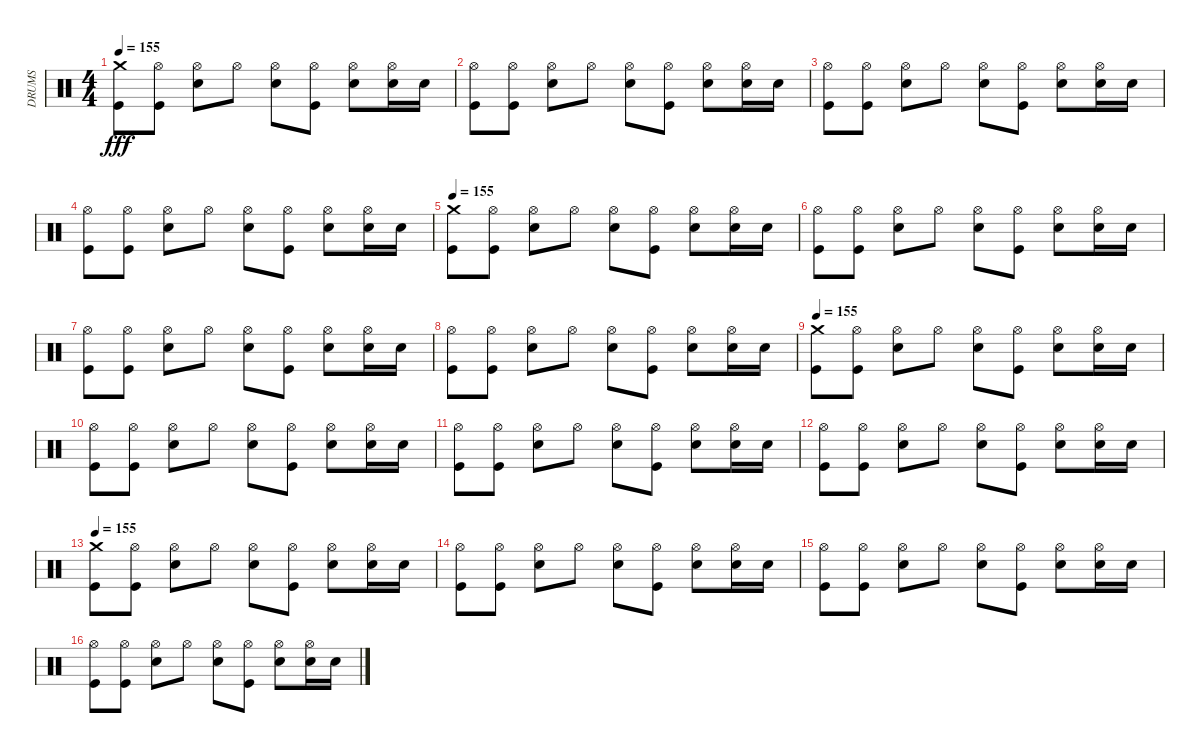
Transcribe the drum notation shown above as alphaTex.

\track ("DRUMS" "DRUMS") {instrument percussion}
\staff {score}
\articulation defaults
\ts (4 4)
\tempo 155
\clef neutral
\ks c
("Kick (hit)" "Crash medium (hit)").8{dy fff volume 14} ("Kick (hit)" "Hi-Hat (open)").8 ("Snare (hit) 2" "Hi-Hat (open)").8 "Hi-Hat (open)".8 ("Snare (hit) 2" "Hi-Hat (open)").8 ("Kick (hit)" "Hi-Hat (open)").8 ("Snare (hit) 2" "Hi-Hat (open)").8 ("Snare (hit) 2" "Hi-Hat (open)").16 "Snare (hit) 2".16 |
("Kick (hit)" "Hi-Hat (open)").8 ("Kick (hit)" "Hi-Hat (open)").8 ("Snare (hit) 2" "Hi-Hat (open)").8 "Hi-Hat (open)".8 ("Snare (hit) 2" "Hi-Hat (open)").8 ("Kick (hit)" "Hi-Hat (open)").8 ("Snare (hit) 2" "Hi-Hat (open)").8 ("Snare (hit) 2" "Hi-Hat (open)").16 "Snare (hit) 2".16 |
("Kick (hit)" "Hi-Hat (open)").8 ("Kick (hit)" "Hi-Hat (open)").8 ("Snare (hit) 2" "Hi-Hat (open)").8 "Hi-Hat (open)".8 ("Snare (hit) 2" "Hi-Hat (open)").8 ("Kick (hit)" "Hi-Hat (open)").8 ("Snare (hit) 2" "Hi-Hat (open)").8 ("Snare (hit) 2" "Hi-Hat (open)").16 "Snare (hit) 2".16 |
("Kick (hit)" "Hi-Hat (open)").8 ("Kick (hit)" "Hi-Hat (open)").8 ("Snare (hit) 2" "Hi-Hat (open)").8 "Hi-Hat (open)".8 ("Snare (hit) 2" "Hi-Hat (open)").8 ("Kick (hit)" "Hi-Hat (open)").8 ("Snare (hit) 2" "Hi-Hat (open)").8 ("Snare (hit) 2" "Hi-Hat (open)").16 "Snare (hit) 2".16 |
\tempo 155
("Kick (hit)" "Crash medium (hit)").8 ("Kick (hit)" "Hi-Hat (open)").8 ("Snare (hit) 2" "Hi-Hat (open)").8 "Hi-Hat (open)".8 ("Snare (hit) 2" "Hi-Hat (open)").8 ("Kick (hit)" "Hi-Hat (open)").8 ("Snare (hit) 2" "Hi-Hat (open)").8 ("Snare (hit) 2" "Hi-Hat (open)").16 "Snare (hit) 2".16 |
("Kick (hit)" "Hi-Hat (open)").8 ("Kick (hit)" "Hi-Hat (open)").8 ("Snare (hit) 2" "Hi-Hat (open)").8 "Hi-Hat (open)".8 ("Snare (hit) 2" "Hi-Hat (open)").8 ("Kick (hit)" "Hi-Hat (open)").8 ("Snare (hit) 2" "Hi-Hat (open)").8 ("Snare (hit) 2" "Hi-Hat (open)").16 "Snare (hit) 2".16 |
("Kick (hit)" "Hi-Hat (open)").8 ("Kick (hit)" "Hi-Hat (open)").8 ("Snare (hit) 2" "Hi-Hat (open)").8 "Hi-Hat (open)".8 ("Snare (hit) 2" "Hi-Hat (open)").8 ("Kick (hit)" "Hi-Hat (open)").8 ("Snare (hit) 2" "Hi-Hat (open)").8 ("Snare (hit) 2" "Hi-Hat (open)").16 "Snare (hit) 2".16 |
("Kick (hit)" "Hi-Hat (open)").8 ("Kick (hit)" "Hi-Hat (open)").8 ("Snare (hit) 2" "Hi-Hat (open)").8 "Hi-Hat (open)".8 ("Snare (hit) 2" "Hi-Hat (open)").8 ("Kick (hit)" "Hi-Hat (open)").8 ("Snare (hit) 2" "Hi-Hat (open)").8 ("Snare (hit) 2" "Hi-Hat (open)").16 "Snare (hit) 2".16 |
\tempo 155
("Kick (hit)" "Crash medium (hit)").8 ("Kick (hit)" "Hi-Hat (open)").8 ("Snare (hit) 2" "Hi-Hat (open)").8 "Hi-Hat (open)".8 ("Snare (hit) 2" "Hi-Hat (open)").8 ("Kick (hit)" "Hi-Hat (open)").8 ("Snare (hit) 2" "Hi-Hat (open)").8 ("Snare (hit) 2" "Hi-Hat (open)").16 "Snare (hit) 2".16 |
("Kick (hit)" "Hi-Hat (open)").8 ("Kick (hit)" "Hi-Hat (open)").8 ("Snare (hit) 2" "Hi-Hat (open)").8 "Hi-Hat (open)".8 ("Snare (hit) 2" "Hi-Hat (open)").8 ("Kick (hit)" "Hi-Hat (open)").8 ("Snare (hit) 2" "Hi-Hat (open)").8 ("Snare (hit) 2" "Hi-Hat (open)").16 "Snare (hit) 2".16 |
("Kick (hit)" "Hi-Hat (open)").8 ("Kick (hit)" "Hi-Hat (open)").8 ("Snare (hit) 2" "Hi-Hat (open)").8 "Hi-Hat (open)".8 ("Snare (hit) 2" "Hi-Hat (open)").8 ("Kick (hit)" "Hi-Hat (open)").8 ("Snare (hit) 2" "Hi-Hat (open)").8 ("Snare (hit) 2" "Hi-Hat (open)").16 "Snare (hit) 2".16 |
("Kick (hit)" "Hi-Hat (open)").8 ("Kick (hit)" "Hi-Hat (open)").8 ("Snare (hit) 2" "Hi-Hat (open)").8 "Hi-Hat (open)".8 ("Snare (hit) 2" "Hi-Hat (open)").8 ("Kick (hit)" "Hi-Hat (open)").8 ("Snare (hit) 2" "Hi-Hat (open)").8 ("Snare (hit) 2" "Hi-Hat (open)").16 "Snare (hit) 2".16 |
\tempo 155
("Kick (hit)" "Crash medium (hit)").8 ("Kick (hit)" "Hi-Hat (open)").8 ("Snare (hit) 2" "Hi-Hat (open)").8 "Hi-Hat (open)".8 ("Snare (hit) 2" "Hi-Hat (open)").8 ("Kick (hit)" "Hi-Hat (open)").8 ("Snare (hit) 2" "Hi-Hat (open)").8 ("Snare (hit) 2" "Hi-Hat (open)").16 "Snare (hit) 2".16 |
("Kick (hit)" "Hi-Hat (open)").8 ("Kick (hit)" "Hi-Hat (open)").8 ("Snare (hit) 2" "Hi-Hat (open)").8 "Hi-Hat (open)".8 ("Snare (hit) 2" "Hi-Hat (open)").8 ("Kick (hit)" "Hi-Hat (open)").8 ("Snare (hit) 2" "Hi-Hat (open)").8 ("Snare (hit) 2" "Hi-Hat (open)").16 "Snare (hit) 2".16 |
("Kick (hit)" "Hi-Hat (open)").8 ("Kick (hit)" "Hi-Hat (open)").8 ("Snare (hit) 2" "Hi-Hat (open)").8 "Hi-Hat (open)".8 ("Snare (hit) 2" "Hi-Hat (open)").8 ("Kick (hit)" "Hi-Hat (open)").8 ("Snare (hit) 2" "Hi-Hat (open)").8 ("Snare (hit) 2" "Hi-Hat (open)").16 "Snare (hit) 2".16 |
("Kick (hit)" "Hi-Hat (open)").8 ("Kick (hit)" "Hi-Hat (open)").8 ("Snare (hit) 2" "Hi-Hat (open)").8 "Hi-Hat (open)".8 ("Snare (hit) 2" "Hi-Hat (open)").8 ("Kick (hit)" "Hi-Hat (open)").8 ("Snare (hit) 2" "Hi-Hat (open)").8 ("Snare (hit) 2" "Hi-Hat (open)").16 "Snare (hit) 2".16
